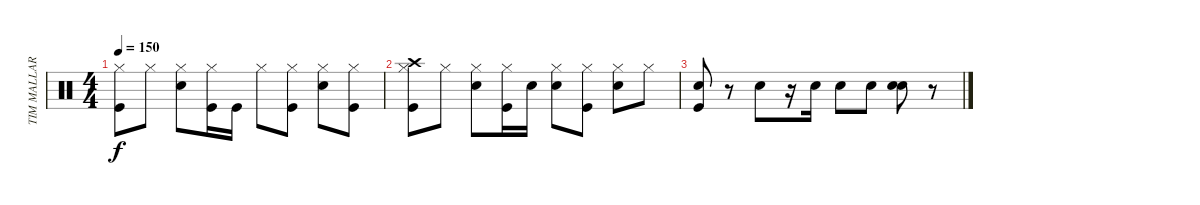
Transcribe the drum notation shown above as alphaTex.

\track ("TIM MALLARE - drums" "TIM MALLAR") {instrument percussion}
\staff {score}
\articulation defaults
\ts (4 4)
\tempo 150
\clef neutral
\ks c
("Hi-Hat (closed)" "Kick (hit)").8{dy f} "Hi-Hat (closed)".8 ("Hi-Hat (closed)" "Electric Snare (hit)").8 ("Hi-Hat (closed)" "Kick (hit)").16 "Kick (hit)".16 "Hi-Hat (closed)".8 ("Hi-Hat (closed)" "Kick (hit)").8 ("Hi-Hat (closed)" "Electric Snare (hit)").8 ("Hi-Hat (closed)" "Kick (hit)").8 |
("Crash high (hit)" "Hi-Hat (closed)" "Kick (hit)").8 "Hi-Hat (closed)".8 ("Hi-Hat (closed)" "Electric Snare (hit)").8 ("Hi-Hat (closed)" "Kick (hit)").16 "Electric Snare (hit)".16 ("Hi-Hat (closed)" "Electric Snare (hit)").8 ("Hi-Hat (closed)" "Kick (hit)").8 ("Hi-Hat (closed)" "Electric Snare (hit)").8 "Hi-Hat (closed)".8 |
("Electric Snare (hit)" "Kick (hit)").8 r.8 "Electric Snare (hit)".8 r.16 "Electric Snare (hit)".16 "Electric Snare (hit)".8 "Electric Snare (hit)".8 ("Electric Snare (hit)" "Electric Snare (hit)").8 r.8
